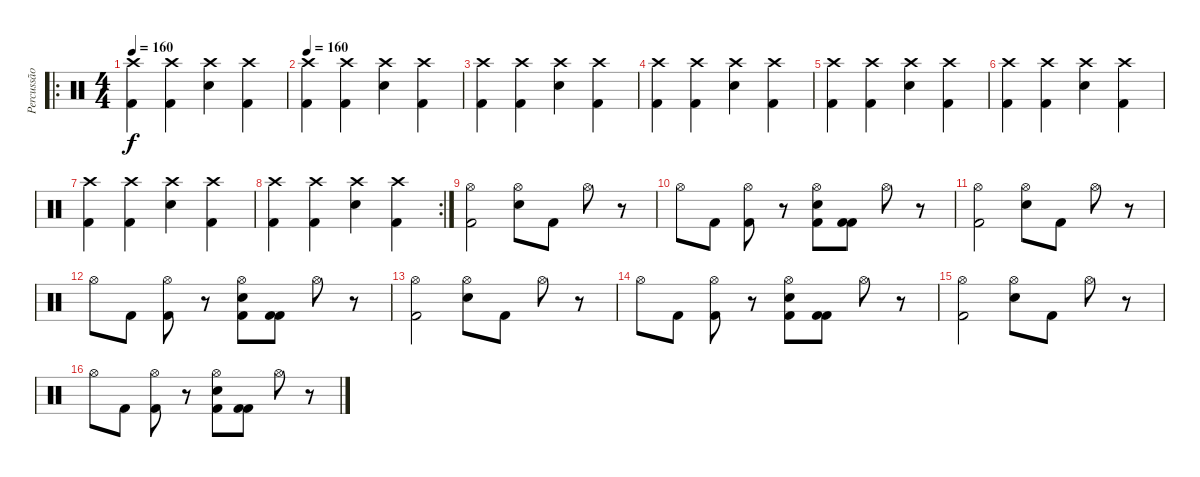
\track ("Percussão" "Percussão") {instrument percussion}
\staff {score}
\articulation defaults
\ro
\ts (4 4)
\tempo 160
\clef neutral
\ks c
("Crash high (hit)" "Kick (hit) 2").4{dy f} ("Crash high (hit)" "Kick (hit) 2").4 ("Crash high (hit)" "Electric Snare (hit)").4 ("Crash high (hit)" "Kick (hit) 2").4 |
\tempo 160
("Crash high (hit)" "Kick (hit) 2").4 ("Crash high (hit)" "Kick (hit) 2").4 ("Crash high (hit)" "Electric Snare (hit)").4 ("Crash high (hit)" "Kick (hit) 2").4 |
("Crash high (hit)" "Kick (hit) 2").4 ("Crash high (hit)" "Kick (hit) 2").4 ("Crash high (hit)" "Electric Snare (hit)").4 ("Crash high (hit)" "Kick (hit) 2").4 |
("Crash high (hit)" "Kick (hit) 2").4 ("Crash high (hit)" "Kick (hit) 2").4 ("Crash high (hit)" "Electric Snare (hit)").4 ("Crash high (hit)" "Kick (hit) 2").4 |
("Crash high (hit)" "Kick (hit) 2").4 ("Crash high (hit)" "Kick (hit) 2").4 ("Crash high (hit)" "Electric Snare (hit)").4 ("Crash high (hit)" "Kick (hit) 2").4 |
("Crash high (hit)" "Kick (hit) 2").4 ("Crash high (hit)" "Kick (hit) 2").4 ("Crash high (hit)" "Electric Snare (hit)").4 ("Crash high (hit)" "Kick (hit) 2").4 |
("Crash high (hit)" "Kick (hit) 2").4 ("Crash high (hit)" "Kick (hit) 2").4 ("Crash high (hit)" "Electric Snare (hit)").4 ("Crash high (hit)" "Kick (hit) 2").4 |
\rc 2
("Crash high (hit)" "Kick (hit) 2").4 ("Crash high (hit)" "Kick (hit) 2").4 ("Crash high (hit)" "Electric Snare (hit)").4 ("Crash high (hit)" "Kick (hit) 2").4 |
("Hi-Hat (open)" "Kick (hit) 2").2 ("Hi-Hat (open)" "Electric Snare (hit)").8 "Kick (hit) 2".8 "Hi-Hat (open)".8 r.8 |
"Hi-Hat (open)".8 "Kick (hit) 2".8 ("Hi-Hat (open)" "Kick (hit) 2").8 r.8 ("Hi-Hat (open)" "Electric Snare (hit)" "Kick (hit) 2").8 ("Kick (hit) 2" "Kick (hit) 2").8 "Hi-Hat (open)".8 r.8 |
("Hi-Hat (open)" "Kick (hit) 2").2 ("Hi-Hat (open)" "Electric Snare (hit)").8 "Kick (hit) 2".8 "Hi-Hat (open)".8 r.8 |
"Hi-Hat (open)".8 "Kick (hit) 2".8 ("Hi-Hat (open)" "Kick (hit) 2").8 r.8 ("Hi-Hat (open)" "Electric Snare (hit)" "Kick (hit) 2").8 ("Kick (hit) 2" "Kick (hit) 2").8 "Hi-Hat (open)".8 r.8 |
("Hi-Hat (open)" "Kick (hit) 2").2 ("Hi-Hat (open)" "Electric Snare (hit)").8 "Kick (hit) 2".8 "Hi-Hat (open)".8 r.8 |
"Hi-Hat (open)".8 "Kick (hit) 2".8 ("Hi-Hat (open)" "Kick (hit) 2").8 r.8 ("Hi-Hat (open)" "Electric Snare (hit)" "Kick (hit) 2").8 ("Kick (hit) 2" "Kick (hit) 2").8 "Hi-Hat (open)".8 r.8 |
("Hi-Hat (open)" "Kick (hit) 2").2 ("Hi-Hat (open)" "Electric Snare (hit)").8 "Kick (hit) 2".8 "Hi-Hat (open)".8 r.8 |
"Hi-Hat (open)".8 "Kick (hit) 2".8 ("Hi-Hat (open)" "Kick (hit) 2").8 r.8 ("Hi-Hat (open)" "Electric Snare (hit)" "Kick (hit) 2").8 ("Kick (hit) 2" "Kick (hit) 2").8 "Hi-Hat (open)".8 r.8
